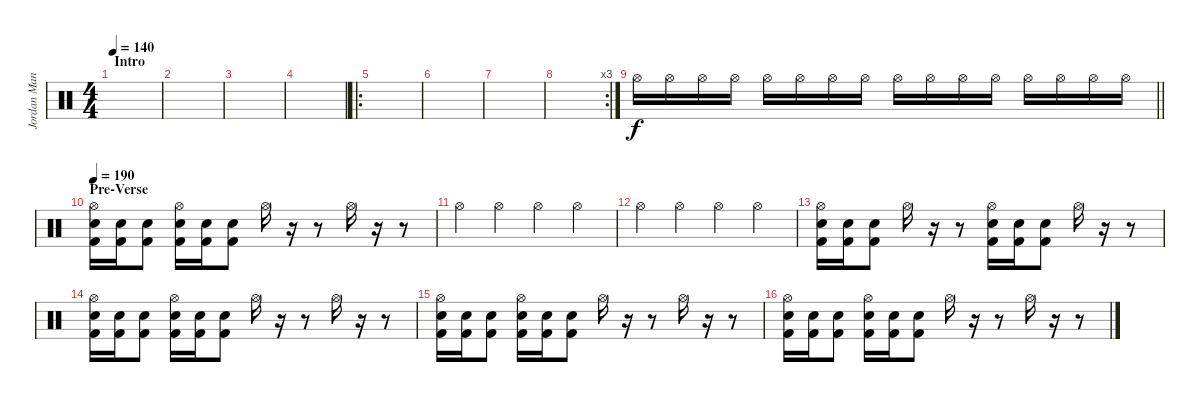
\track ("Jordan Mancino" "Jordan Man") {instrument percussion}
\staff {score}
\articulation defaults
\ts (4 4)
\section ("" "Intro")
\tempo 140
\clef neutral
\ks c
|
|
|
|
\ro
|
|
|
\rc 3
|
\barLineRight lightlight "Hi-Hat (open)".16{volume 0} "Hi-Hat (open)".16{volume 13} "Hi-Hat (open)".16 "Hi-Hat (open)".16 "Hi-Hat (open)".16 "Hi-Hat (open)".16 "Hi-Hat (open)".16 "Hi-Hat (open)".16 "Hi-Hat (open)".16 "Hi-Hat (open)".16 "Hi-Hat (open)".16 "Hi-Hat (open)".16 "Hi-Hat (open)".16 "Hi-Hat (open)".16 "Hi-Hat (open)".16 "Hi-Hat (open)".16
|
\section ("" "Pre-Verse")
\tempo 190
("Hi-Hat (open)" "Kick (hit) 2" "Snare (hit) 2").16 ("Kick (hit) 2" "Snare (hit) 2").16 ("Kick (hit) 2" "Snare (hit) 2").8 ("Hi-Hat (open)" "Kick (hit) 2" "Snare (hit) 2").16 ("Kick (hit) 2" "Snare (hit) 2").16 ("Kick (hit) 2" "Snare (hit) 2").8 "Hi-Hat (open)".16 r.16 r.8 "Hi-Hat (open)".16 r.16 r.8 |
"Hi-Hat (open)".4 "Hi-Hat (open)".4 "Hi-Hat (open)".4 "Hi-Hat (open)".4 |
"Hi-Hat (open)".4 "Hi-Hat (open)".4 "Hi-Hat (open)".4 "Hi-Hat (open)".4 |
("Hi-Hat (open)" "Kick (hit) 2" "Snare (hit) 2").16 ("Kick (hit) 2" "Snare (hit) 2").16 ("Kick (hit) 2" "Snare (hit) 2").8 "Hi-Hat (open)".16 r.16 r.8 ("Hi-Hat (open)" "Kick (hit) 2" "Snare (hit) 2").16 ("Kick (hit) 2" "Snare (hit) 2").16 ("Kick (hit) 2" "Snare (hit) 2").8 "Hi-Hat (open)".16 r.16 r.8 |
("Hi-Hat (open)" "Kick (hit) 2" "Snare (hit) 2").16 ("Kick (hit) 2" "Snare (hit) 2").16 ("Kick (hit) 2" "Snare (hit) 2").8 ("Hi-Hat (open)" "Kick (hit) 2" "Snare (hit) 2").16 ("Kick (hit) 2" "Snare (hit) 2").16 ("Kick (hit) 2" "Snare (hit) 2").8 "Hi-Hat (open)".16 r.16 r.8 "Hi-Hat (open)".16 r.16 r.8 |
("Hi-Hat (open)" "Kick (hit) 2" "Snare (hit) 2").16 ("Kick (hit) 2" "Snare (hit) 2").16 ("Kick (hit) 2" "Snare (hit) 2").8 ("Hi-Hat (open)" "Kick (hit) 2" "Snare (hit) 2").16 ("Kick (hit) 2" "Snare (hit) 2").16 ("Kick (hit) 2" "Snare (hit) 2").8 "Hi-Hat (open)".16 r.16 r.8 "Hi-Hat (open)".16 r.16 r.8 |
("Hi-Hat (open)" "Kick (hit) 2" "Snare (hit) 2").16 ("Kick (hit) 2" "Snare (hit) 2").16 ("Kick (hit) 2" "Snare (hit) 2").8 ("Hi-Hat (open)" "Kick (hit) 2" "Snare (hit) 2").16 ("Kick (hit) 2" "Snare (hit) 2").16 ("Kick (hit) 2" "Snare (hit) 2").8 "Hi-Hat (open)".16 r.16 r.8 "Hi-Hat (open)".16 r.16 r.8
